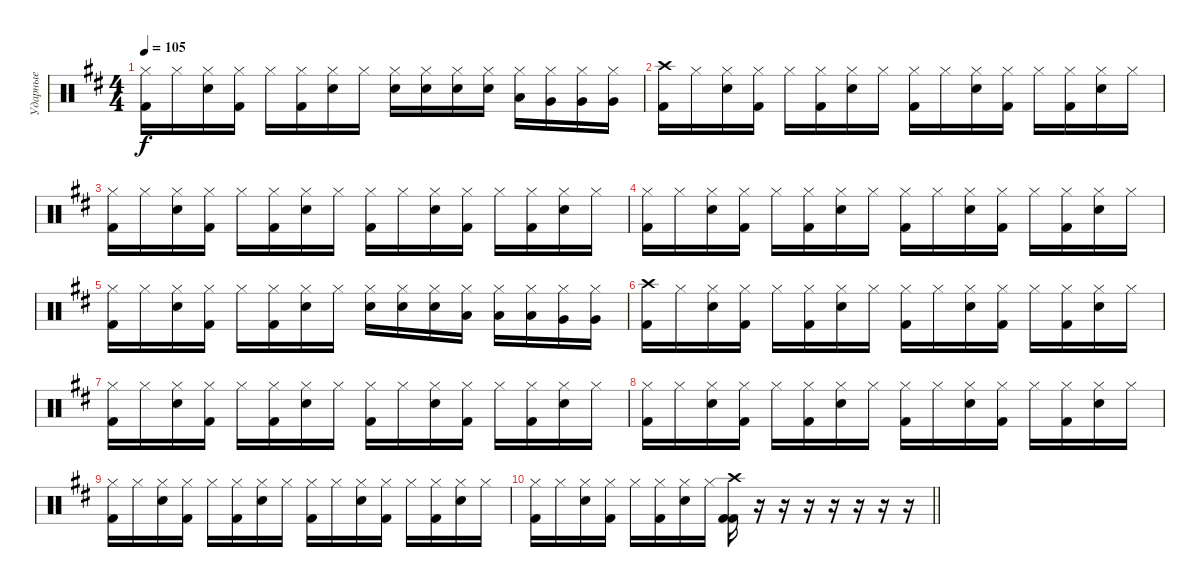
\track ("Ударные" "Ударные") {instrument percussion}
\staff {score}
\articulation defaults
\ts (4 4)
\tempo 105
\clef neutral
\ks bminor
("Hi-Hat (closed)" "Kick (hit) 2").16{dy f} "Hi-Hat (closed)".16 ("Hi-Hat (closed)" "Snare (hit) 2").16 ("Hi-Hat (closed)" "Kick (hit) 2").16 "Hi-Hat (closed)".16 ("Hi-Hat (closed)" "Kick (hit) 2").16 ("Hi-Hat (closed)" "Snare (hit) 2").16 "Hi-Hat (closed)".16 ("Hi-Hat (closed)" "Snare (hit) 2").16 ("Hi-Hat (closed)" "Snare (hit) 2").16 ("Hi-Hat (closed)" "Snare (hit) 2").16 ("Hi-Hat (closed)" "Snare (hit) 2").16 ("Hi-Hat (closed)" "Low Tom (hit)").16 ("Hi-Hat (closed)" "Very Low Tom (hit)").16 ("Hi-Hat (closed)" "Very Low Tom (hit)").16 ("Hi-Hat (closed)" "Very Low Tom (hit)").16 |
("Crash high (hit)" "Kick (hit) 2").16 "Hi-Hat (closed)".16 ("Hi-Hat (closed)" "Snare (hit) 2").16 ("Hi-Hat (closed)" "Kick (hit) 2").16 "Hi-Hat (closed)".16 ("Hi-Hat (closed)" "Kick (hit) 2").16 ("Hi-Hat (closed)" "Snare (hit) 2").16 "Hi-Hat (closed)".16 ("Hi-Hat (closed)" "Kick (hit) 2").16 "Hi-Hat (closed)".16 ("Hi-Hat (closed)" "Snare (hit) 2").16 ("Hi-Hat (closed)" "Kick (hit) 2").16 "Hi-Hat (closed)".16 ("Hi-Hat (closed)" "Kick (hit) 2").16 ("Hi-Hat (closed)" "Snare (hit) 2").16 "Hi-Hat (closed)".16 |
("Hi-Hat (closed)" "Kick (hit) 2").16 "Hi-Hat (closed)".16 ("Hi-Hat (closed)" "Snare (hit) 2").16 ("Hi-Hat (closed)" "Kick (hit) 2").16 "Hi-Hat (closed)".16 ("Hi-Hat (closed)" "Kick (hit) 2").16 ("Hi-Hat (closed)" "Snare (hit) 2").16 "Hi-Hat (closed)".16 ("Hi-Hat (closed)" "Kick (hit) 2").16 "Hi-Hat (closed)".16 ("Hi-Hat (closed)" "Snare (hit) 2").16 ("Hi-Hat (closed)" "Kick (hit) 2").16 "Hi-Hat (closed)".16 ("Hi-Hat (closed)" "Kick (hit) 2").16 ("Hi-Hat (closed)" "Snare (hit) 2").16 "Hi-Hat (closed)".16 |
("Hi-Hat (closed)" "Kick (hit) 2").16 "Hi-Hat (closed)".16 ("Hi-Hat (closed)" "Snare (hit) 2").16 ("Hi-Hat (closed)" "Kick (hit) 2").16 "Hi-Hat (closed)".16 ("Hi-Hat (closed)" "Kick (hit) 2").16 ("Hi-Hat (closed)" "Snare (hit) 2").16 "Hi-Hat (closed)".16 ("Hi-Hat (closed)" "Kick (hit) 2").16 "Hi-Hat (closed)".16 ("Hi-Hat (closed)" "Snare (hit) 2").16 ("Hi-Hat (closed)" "Kick (hit) 2").16 "Hi-Hat (closed)".16 ("Hi-Hat (closed)" "Kick (hit) 2").16 ("Hi-Hat (closed)" "Snare (hit) 2").16 "Hi-Hat (closed)".16 |
("Hi-Hat (closed)" "Kick (hit) 2").16 "Hi-Hat (closed)".16 ("Hi-Hat (closed)" "Snare (hit) 2").16 ("Hi-Hat (closed)" "Kick (hit) 2").16 "Hi-Hat (closed)".16 ("Hi-Hat (closed)" "Kick (hit) 2").16 ("Hi-Hat (closed)" "Snare (hit) 2").16 "Hi-Hat (closed)".16 ("Hi-Hat (closed)" "Snare (hit) 2").16 ("Hi-Hat (closed)" "Snare (hit) 2").16 ("Hi-Hat (closed)" "Snare (hit) 2").16 ("Hi-Hat (closed)" "Low Tom (hit)").16 ("Hi-Hat (closed)" "Low Tom (hit)").16 ("Hi-Hat (closed)" "Low Tom (hit)").16 ("Hi-Hat (closed)" "Very Low Tom (hit)").16 ("Hi-Hat (closed)" "Very Low Tom (hit)").16 |
("Crash high (hit)" "Kick (hit) 2").16 "Hi-Hat (closed)".16 ("Hi-Hat (closed)" "Snare (hit) 2").16 ("Hi-Hat (closed)" "Kick (hit) 2").16 "Hi-Hat (closed)".16 ("Hi-Hat (closed)" "Kick (hit) 2").16 ("Hi-Hat (closed)" "Snare (hit) 2").16 "Hi-Hat (closed)".16 ("Hi-Hat (closed)" "Kick (hit) 2").16 "Hi-Hat (closed)".16 ("Hi-Hat (closed)" "Snare (hit) 2").16 ("Hi-Hat (closed)" "Kick (hit) 2").16 "Hi-Hat (closed)".16 ("Hi-Hat (closed)" "Kick (hit) 2").16 ("Hi-Hat (closed)" "Snare (hit) 2").16 "Hi-Hat (closed)".16 |
("Hi-Hat (closed)" "Kick (hit) 2").16 "Hi-Hat (closed)".16 ("Hi-Hat (closed)" "Snare (hit) 2").16 ("Hi-Hat (closed)" "Kick (hit) 2").16 "Hi-Hat (closed)".16 ("Hi-Hat (closed)" "Kick (hit) 2").16 ("Hi-Hat (closed)" "Snare (hit) 2").16 "Hi-Hat (closed)".16 ("Hi-Hat (closed)" "Kick (hit) 2").16 "Hi-Hat (closed)".16 ("Hi-Hat (closed)" "Snare (hit) 2").16 ("Hi-Hat (closed)" "Kick (hit) 2").16 "Hi-Hat (closed)".16 ("Hi-Hat (closed)" "Kick (hit) 2").16 ("Hi-Hat (closed)" "Snare (hit) 2").16 "Hi-Hat (closed)".16 |
("Hi-Hat (closed)" "Kick (hit) 2").16 "Hi-Hat (closed)".16 ("Hi-Hat (closed)" "Snare (hit) 2").16 ("Hi-Hat (closed)" "Kick (hit) 2").16 "Hi-Hat (closed)".16 ("Hi-Hat (closed)" "Kick (hit) 2").16 ("Hi-Hat (closed)" "Snare (hit) 2").16 "Hi-Hat (closed)".16 ("Hi-Hat (closed)" "Kick (hit) 2").16 "Hi-Hat (closed)".16 ("Hi-Hat (closed)" "Snare (hit) 2").16 ("Hi-Hat (closed)" "Kick (hit) 2").16 "Hi-Hat (closed)".16 ("Hi-Hat (closed)" "Kick (hit) 2").16 ("Hi-Hat (closed)" "Snare (hit) 2").16 "Hi-Hat (closed)".16 |
("Hi-Hat (closed)" "Kick (hit) 2").16 "Hi-Hat (closed)".16 ("Hi-Hat (closed)" "Snare (hit) 2").16 ("Hi-Hat (closed)" "Kick (hit) 2").16 "Hi-Hat (closed)".16 ("Hi-Hat (closed)" "Kick (hit) 2").16 ("Hi-Hat (closed)" "Snare (hit) 2").16 "Hi-Hat (closed)".16 ("Hi-Hat (closed)" "Kick (hit) 2").16 "Hi-Hat (closed)".16 ("Hi-Hat (closed)" "Snare (hit) 2").16 ("Hi-Hat (closed)" "Kick (hit) 2").16 "Hi-Hat (closed)".16 ("Hi-Hat (closed)" "Kick (hit) 2").16 ("Hi-Hat (closed)" "Snare (hit) 2").16 "Hi-Hat (closed)".16 |
\barLineRight lightlight
("Hi-Hat (closed)" "Kick (hit) 2").16 "Hi-Hat (closed)".16 ("Hi-Hat (closed)" "Snare (hit) 2").16 ("Hi-Hat (closed)" "Kick (hit) 2").16 "Hi-Hat (closed)".16 ("Hi-Hat (closed)" "Kick (hit) 2").16 ("Hi-Hat (closed)" "Snare (hit) 2").16 "Hi-Hat (closed)".16 ("Crash high (hit)" "Kick (hit) 2" "Kick (hit) 2").16 r.16 r.16 r.16 r.16 r.16 r.16 r.16
